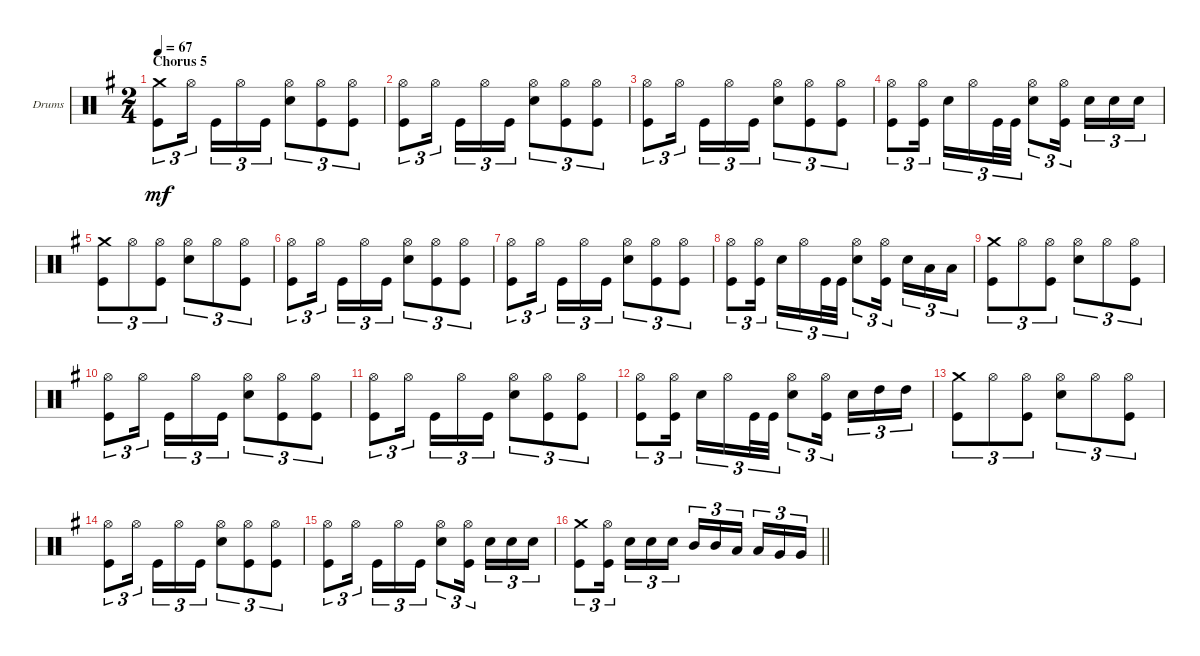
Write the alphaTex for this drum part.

\bracketExtendMode groupsimilarinstruments
\firstSystemTrackNameOrientation horizontal
\otherSystemsTrackNameOrientation horizontal
\track ("drums (Anton Zulganov)" "Drums") {instrument percussion}
\staff {score}
\articulation defaults
\ts (2 4)
\section ("" "Chorus 5")
\tempo 67
\clef neutral
\ks eminor
("Crash medium (hit)" "Kick (hit)").8{tu (3 2) dy mf} "Hi-Hat (open)".16{tu (3 2)} "Kick (hit)".16{tu (3 2)} "Hi-Hat (open)".16{tu (3 2)} "Kick (hit)".16{tu (3 2)} ("Hi-Hat (open)" "Snare (hit) 2").8{tu (3 2)} ("Hi-Hat (open)" "Kick (hit)").8{tu (3 2)} ("Hi-Hat (open)" "Kick (hit)").8{tu (3 2)} |
("Hi-Hat (open)" "Kick (hit)").8{tu (3 2)} "Hi-Hat (open)".16{tu (3 2)} "Kick (hit)".16{tu (3 2)} "Hi-Hat (open)".16{tu (3 2)} "Kick (hit)".16{tu (3 2)} ("Hi-Hat (open)" "Snare (hit) 2").8{tu (3 2)} ("Hi-Hat (open)" "Kick (hit)").8{tu (3 2)} ("Hi-Hat (open)" "Kick (hit)").8{tu (3 2)} |
("Hi-Hat (open)" "Kick (hit)").8{tu (3 2)} "Hi-Hat (open)".16{tu (3 2)} "Kick (hit)".16{tu (3 2)} "Hi-Hat (open)".16{tu (3 2)} "Kick (hit)".16{tu (3 2)} ("Hi-Hat (open)" "Snare (hit) 2").8{tu (3 2)} ("Hi-Hat (open)" "Kick (hit)").8{tu (3 2)} ("Hi-Hat (open)" "Kick (hit)").8{tu (3 2)} |
("Hi-Hat (open)" "Kick (hit)").8{tu (3 2)} ("Hi-Hat (open)" "Kick (hit)").16{tu (3 2)} "Snare (hit) 2".16{tu (3 2)} "Hi-Hat (open)".16{tu (3 2)} "Kick (hit)".32{tu (3 2)} "Kick (hit)".32{tu (3 2)} ("Hi-Hat (open)" "Snare (hit) 2").8{tu (3 2)} ("Hi-Hat (open)" "Kick (hit)").16{tu (3 2)} "Snare (hit) 2".16{tu (3 2)} "Snare (hit) 2".16{tu (3 2)} "Snare (hit) 2".16{tu (3 2)} |
("Crash medium (hit)" "Kick (hit)").8{tu (3 2)} "Hi-Hat (open)".8{tu (3 2)} ("Hi-Hat (open)" "Kick (hit)").8{tu (3 2)} ("Hi-Hat (open)" "Snare (hit) 2").8{tu (3 2)} "Hi-Hat (open)".8{tu (3 2)} ("Hi-Hat (open)" "Kick (hit)").8{tu (3 2)} |
("Hi-Hat (open)" "Kick (hit)").8{tu (3 2)} "Hi-Hat (open)".16{tu (3 2)} "Kick (hit)".16{tu (3 2)} "Hi-Hat (open)".16{tu (3 2)} "Kick (hit)".16{tu (3 2)} ("Hi-Hat (open)" "Snare (hit) 2").8{tu (3 2)} ("Hi-Hat (open)" "Kick (hit)").8{tu (3 2)} ("Hi-Hat (open)" "Kick (hit)").8{tu (3 2)} |
("Hi-Hat (open)" "Kick (hit)").8{tu (3 2)} "Hi-Hat (open)".16{tu (3 2)} "Kick (hit)".16{tu (3 2)} "Hi-Hat (open)".16{tu (3 2)} "Kick (hit)".16{tu (3 2)} ("Hi-Hat (open)" "Snare (hit) 2").8{tu (3 2)} ("Hi-Hat (open)" "Kick (hit)").8{tu (3 2)} ("Hi-Hat (open)" "Kick (hit)").8{tu (3 2)} |
("Hi-Hat (open)" "Kick (hit)").8{tu (3 2)} ("Hi-Hat (open)" "Kick (hit)").16{tu (3 2)} "Snare (hit) 2".16{tu (3 2)} "Hi-Hat (open)".16{tu (3 2)} "Kick (hit)".32{tu (3 2)} "Kick (hit)".32{tu (3 2)} ("Hi-Hat (open)" "Snare (hit) 2").8{tu (3 2)} ("Hi-Hat (open)" "Kick (hit)").16{tu (3 2)} "Snare (hit) 2".16{tu (3 2)} "Low Tom (hit)".16{tu (3 2)} "Low Tom (hit)".16{tu (3 2)} |
("Crash medium (hit)" "Kick (hit)").8{tu (3 2)} "Hi-Hat (open)".8{tu (3 2)} ("Hi-Hat (open)" "Kick (hit)").8{tu (3 2)} ("Hi-Hat (open)" "Snare (hit) 2").8{tu (3 2)} "Hi-Hat (open)".8{tu (3 2)} ("Hi-Hat (open)" "Kick (hit)").8{tu (3 2)} |
("Hi-Hat (open)" "Kick (hit)").8{tu (3 2)} "Hi-Hat (open)".16{tu (3 2)} "Kick (hit)".16{tu (3 2)} "Hi-Hat (open)".16{tu (3 2)} "Kick (hit)".16{tu (3 2)} ("Hi-Hat (open)" "Snare (hit) 2").8{tu (3 2)} ("Hi-Hat (open)" "Kick (hit)").8{tu (3 2)} ("Hi-Hat (open)" "Kick (hit)").8{tu (3 2)} |
("Hi-Hat (open)" "Kick (hit)").8{tu (3 2)} "Hi-Hat (open)".16{tu (3 2)} "Kick (hit)".16{tu (3 2)} "Hi-Hat (open)".16{tu (3 2)} "Kick (hit)".16{tu (3 2)} ("Hi-Hat (open)" "Snare (hit) 2").8{tu (3 2)} ("Hi-Hat (open)" "Kick (hit)").8{tu (3 2)} ("Hi-Hat (open)" "Kick (hit)").8{tu (3 2)} |
("Hi-Hat (open)" "Kick (hit)").8{tu (3 2)} ("Hi-Hat (open)" "Kick (hit)").16{tu (3 2)} "Snare (hit) 2".16{tu (3 2)} "Hi-Hat (open)".16{tu (3 2)} "Kick (hit)".32{tu (3 2)} "Kick (hit)".32{tu (3 2)} ("Hi-Hat (open)" "Snare (hit) 2").8{tu (3 2)} ("Hi-Hat (open)" "Kick (hit)").16{tu (3 2)} "Snare (hit) 2".16{tu (3 2)} "High Tom (hit)".16{tu (3 2)} "High Tom (hit)".16{tu (3 2)} |
("Crash medium (hit)" "Kick (hit)").8{tu (3 2)} "Hi-Hat (open)".8{tu (3 2)} ("Hi-Hat (open)" "Kick (hit)").8{tu (3 2)} ("Hi-Hat (open)" "Snare (hit) 2").8{tu (3 2)} "Hi-Hat (open)".8{tu (3 2)} ("Hi-Hat (open)" "Kick (hit)").8{tu (3 2)} |
("Hi-Hat (open)" "Kick (hit)").8{tu (3 2)} "Hi-Hat (open)".16{tu (3 2)} "Kick (hit)".16{tu (3 2)} "Hi-Hat (open)".16{tu (3 2)} "Kick (hit)".16{tu (3 2)} ("Hi-Hat (open)" "Snare (hit) 2").8{tu (3 2)} ("Hi-Hat (open)" "Kick (hit)").8{tu (3 2)} ("Hi-Hat (open)" "Kick (hit)").8{tu (3 2)} |
("Hi-Hat (open)" "Kick (hit)").8{tu (3 2)} "Hi-Hat (open)".16{tu (3 2)} "Kick (hit)".16{tu (3 2)} "Hi-Hat (open)".16{tu (3 2)} "Kick (hit)".16{tu (3 2)} ("Hi-Hat (open)" "Snare (hit) 2").8{tu (3 2)} ("Hi-Hat (open)" "Kick (hit)").16{tu (3 2)} "Snare (hit) 2".16{tu (3 2)} "Snare (hit) 2".16{tu (3 2)} "Snare (hit) 2".16{tu (3 2)} |
\barLineRight lightlight
("Crash medium (hit)" "Kick (hit)").8{tu (3 2)} ("Kick (hit)" "Hi-Hat (open)").16{tu (3 2)} "Snare (hit) 2".16{tu (3 2)} "Snare (hit) 2".16{tu (3 2)} "Snare (hit) 2".16{tu (3 2)} "Mid Tom (hit)".16{tu (3 2)} "Mid Tom (hit)".16{tu (3 2)} "Low Tom (hit)".16{tu (3 2)} "Low Tom (hit)".16{tu (3 2)} "Very Low Tom (hit)".16{tu (3 2)} "Very Low Tom (hit)".16{tu (3 2)}
